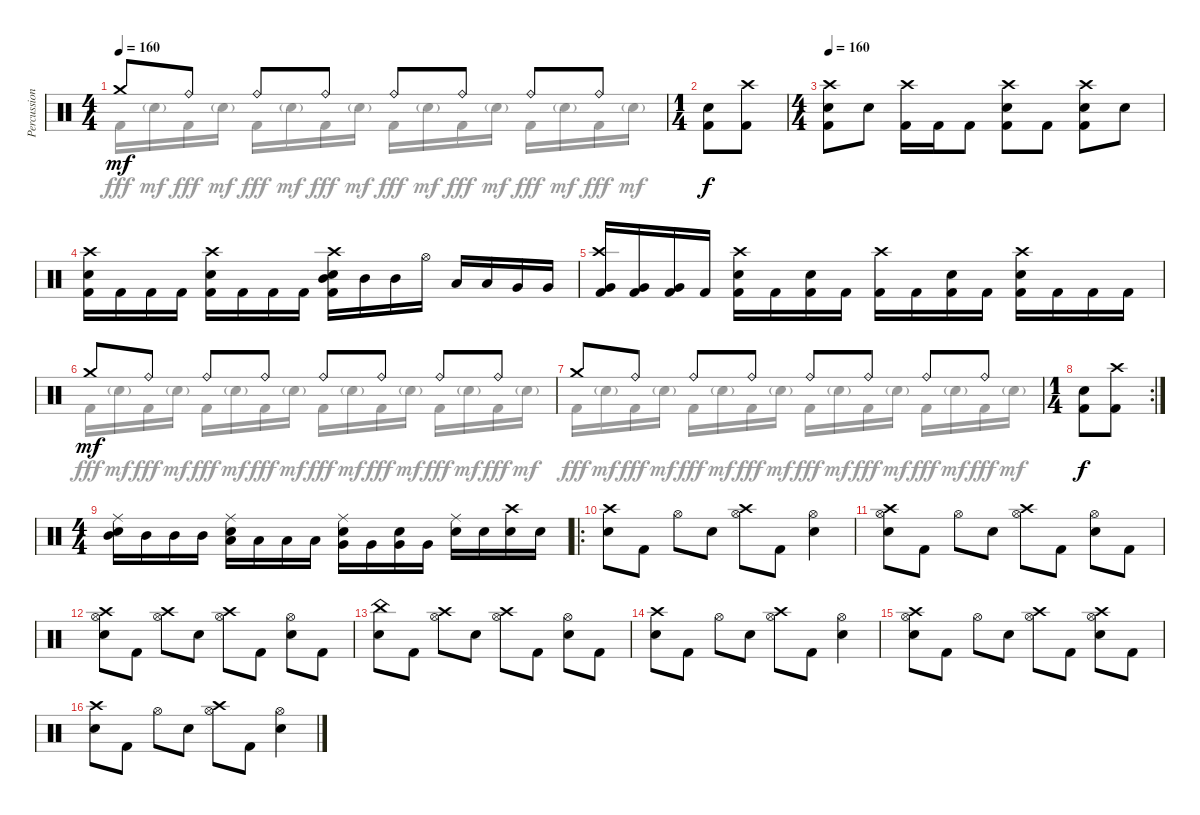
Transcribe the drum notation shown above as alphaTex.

\track ("Percussion" "Percussion") {instrument percussion}
\staff {score}
\articulation defaults
\voice
\ts (4 4)
\tempo 160
\clef neutral
\ks c "Crash medium (hit)".8{dy mf} "Ride (bell)".8 "Ride (bell)".8 "Ride (bell)".8 "Ride (bell)".8 "Ride (bell)".8 "Ride (bell)".8 "Ride (bell)".8
|
\ts (1 4)
("Snare (hit) 2" "Kick (hit) 2").8{dy f} ("Crash high (hit)" "Kick (hit) 2").8 |
\ts (4 4)
\tempo 160
("Crash high (hit)" "Snare (hit) 2" "Kick (hit) 2").8 "Snare (hit) 2".8 ("Crash high (hit)" "Kick (hit) 2").16 "Kick (hit) 2".16 "Kick (hit) 2".8 ("Crash high (hit)" "Snare (hit) 2" "Kick (hit) 2").8 "Kick (hit) 2".8 ("Crash high (hit)" "Snare (hit) 2" "Kick (hit) 2").8 "Snare (hit) 2".8 |
("Crash high (hit)" "Snare (hit) 2" "Kick (hit) 2").16 "Kick (hit) 2".16 "Kick (hit) 2".16 "Kick (hit) 2".16 ("Crash high (hit)" "Snare (hit) 2" "Kick (hit) 2").16 "Kick (hit) 2".16 "Kick (hit) 2".16 "Kick (hit) 2".16 ("Crash high (hit)" "Snare (hit) 2" "Mid Tom (hit)" "Kick (hit) 2").16 "Mid Tom (hit)".16 "Mid Tom (hit)".16 "Hi-Hat (open)".16 "Low Tom (hit)".16 "Low Tom (hit)".16 "Very Low Tom (hit)".16 "Very Low Tom (hit)".16 |
("Crash high (hit)" "Very Low Tom (hit)" "Kick (hit) 2").16 ("Very Low Tom (hit)" "Kick (hit) 2").16 ("Very Low Tom (hit)" "Kick (hit) 2").16 "Kick (hit) 2".16 ("Crash high (hit)" "Snare (hit) 2" "Kick (hit) 2").16 "Kick (hit) 2".16 ("Snare (hit) 2" "Kick (hit) 2").16 "Kick (hit) 2".16 ("Crash high (hit)" "Kick (hit) 2").16 "Kick (hit) 2".16 ("Snare (hit) 2" "Kick (hit) 2").16 "Kick (hit) 2".16 ("Crash high (hit)" "Snare (hit) 2" "Kick (hit) 2").16 "Kick (hit) 2".16 "Kick (hit) 2".16 "Kick (hit) 2".16 |
"Crash medium (hit)".8{dy mf} "Ride (bell)".8 "Ride (bell)".8 "Ride (bell)".8 "Ride (bell)".8 "Ride (bell)".8 "Ride (bell)".8 "Ride (bell)".8 |
"Crash medium (hit)".8 "Ride (bell)".8 "Ride (bell)".8 "Ride (bell)".8 "Ride (bell)".8 "Ride (bell)".8 "Ride (bell)".8 "Ride (bell)".8 |
\rc 2
\ts (1 4)
("Snare (hit) 2" "Kick (hit) 2").8{dy f} ("Crash high (hit)" "Kick (hit) 2").8 |
\ts (4 4)
("Ride (middle)" "Snare (hit) 2" "Mid Tom (hit)").16 "Mid Tom (hit)".16 "Mid Tom (hit)".16 "Mid Tom (hit)".16 ("Ride (middle)" "Snare (hit) 2" "Low Tom (hit)").16 "Low Tom (hit)".16 "Low Tom (hit)".16 "Low Tom (hit)".16 ("Ride (middle)" "Snare (hit) 2" "Very Low Tom (hit)").16 "Very Low Tom (hit)".16 ("Snare (hit) 2" "Very Low Tom (hit)").16 "Very Low Tom (hit)".16 ("Ride (middle)" "Snare (hit) 2").16 "Snare (hit) 2".16 ("Crash high (hit)" "Snare (hit) 2").16 "Snare (hit) 2".16 |
\ro
("Crash high (hit)" "Snare (hit) 2").8 "Kick (hit) 2".8 "Hi-Hat (open)".8 "Snare (hit) 2".8 ("Crash high (hit)" "Hi-Hat (open)").8 "Kick (hit) 2".8 ("Hi-Hat (open)" "Snare (hit) 2").4 |
("Crash high (hit)" "Hi-Hat (open)" "Snare (hit) 2").8 "Kick (hit) 2".8 "Hi-Hat (open)".8 "Snare (hit) 2".8 ("Crash high (hit)" "Hi-Hat (open)").8 "Kick (hit) 2".8 ("Hi-Hat (open)" "Snare (hit) 2").8 "Kick (hit) 2".8 |
("Crash high (hit)" "Hi-Hat (open)" "Snare (hit) 2").8 "Kick (hit) 2".8 ("Crash high (hit)" "Hi-Hat (open)").8 "Snare (hit) 2".8 ("Crash high (hit)" "Hi-Hat (open)").8 "Kick (hit) 2".8 ("Hi-Hat (open)" "Snare (hit) 2").8 "Kick (hit) 2".8 |
("China (hit)" "Snare (hit) 2").8 "Kick (hit) 2".8 ("Crash high (hit)" "Hi-Hat (open)").8 "Snare (hit) 2".8 ("Crash high (hit)" "Hi-Hat (open)").8 "Kick (hit) 2".8 ("Hi-Hat (open)" "Snare (hit) 2").8 "Kick (hit) 2".8 |
("Crash high (hit)" "Snare (hit) 2").8 "Kick (hit) 2".8 "Hi-Hat (open)".8 "Snare (hit) 2".8 ("Crash high (hit)" "Hi-Hat (open)").8 "Kick (hit) 2".8 ("Hi-Hat (open)" "Snare (hit) 2").4 |
("Crash high (hit)" "Hi-Hat (open)" "Snare (hit) 2").8 "Kick (hit) 2".8 "Hi-Hat (open)".8 "Snare (hit) 2".8 ("Crash high (hit)" "Hi-Hat (open)").8 "Kick (hit) 2".8 ("Crash high (hit)" "Hi-Hat (open)" "Snare (hit) 2").8 "Kick (hit) 2".8 |
("Crash high (hit)" "Snare (hit) 2").8 "Kick (hit) 2".8 "Hi-Hat (open)".8 "Snare (hit) 2".8 ("Crash high (hit)" "Hi-Hat (open)").8 "Kick (hit) 2".8 ("Hi-Hat (open)" "Snare (hit) 2").4
\voice
\clef neutral
\ottava regular
\simile none
\ks c "Kick (hit) 2".16{dy fff} "Electric Snare (hit)"{g}.16{dy mf} "Kick (hit) 2".16{dy fff} "Electric Snare (hit)"{g}.16{dy mf} "Kick (hit) 2".16{dy fff} "Electric Snare (hit)"{g}.16{dy mf} "Kick (hit) 2".16{dy fff} "Electric Snare (hit)"{g}.16{dy mf} "Kick (hit) 2".16{dy fff} "Electric Snare (hit)"{g}.16{dy mf} "Kick (hit) 2".16{dy fff} "Electric Snare (hit)"{g}.16{dy mf} "Kick (hit) 2".16{dy fff} "Electric Snare (hit)"{g}.16{dy mf} "Kick (hit) 2".16{dy fff} "Electric Snare (hit)"{g}.16{dy mf}
|
|
|
|
|
"Kick (hit) 2".16{dy fff} "Electric Snare (hit)"{g}.16{dy mf} "Kick (hit) 2".16{dy fff} "Electric Snare (hit)"{g}.16{dy mf} "Kick (hit) 2".16{dy fff} "Electric Snare (hit)"{g}.16{dy mf} "Kick (hit) 2".16{dy fff} "Electric Snare (hit)"{g}.16{dy mf} "Kick (hit) 2".16{dy fff} "Electric Snare (hit)"{g}.16{dy mf} "Kick (hit) 2".16{dy fff} "Electric Snare (hit)"{g}.16{dy mf} "Kick (hit) 2".16{dy fff} "Electric Snare (hit)"{g}.16{dy mf} "Kick (hit) 2".16{dy fff} "Electric Snare (hit)"{g}.16{dy mf} |
"Kick (hit) 2".16{dy fff} "Electric Snare (hit)"{g}.16{dy mf} "Kick (hit) 2".16{dy fff} "Electric Snare (hit)"{g}.16{dy mf} "Kick (hit) 2".16{dy fff} "Electric Snare (hit)"{g}.16{dy mf} "Kick (hit) 2".16{dy fff} "Electric Snare (hit)"{g}.16{dy mf} "Kick (hit) 2".16{dy fff} "Electric Snare (hit)"{g}.16{dy mf} "Kick (hit) 2".16{dy fff} "Electric Snare (hit)"{g}.16{dy mf} "Kick (hit) 2".16{dy fff} "Electric Snare (hit)"{g}.16{dy mf} "Kick (hit) 2".16{dy fff} "Electric Snare (hit)"{g}.16{dy mf} |
|
|
|
|
|
|
|
|
